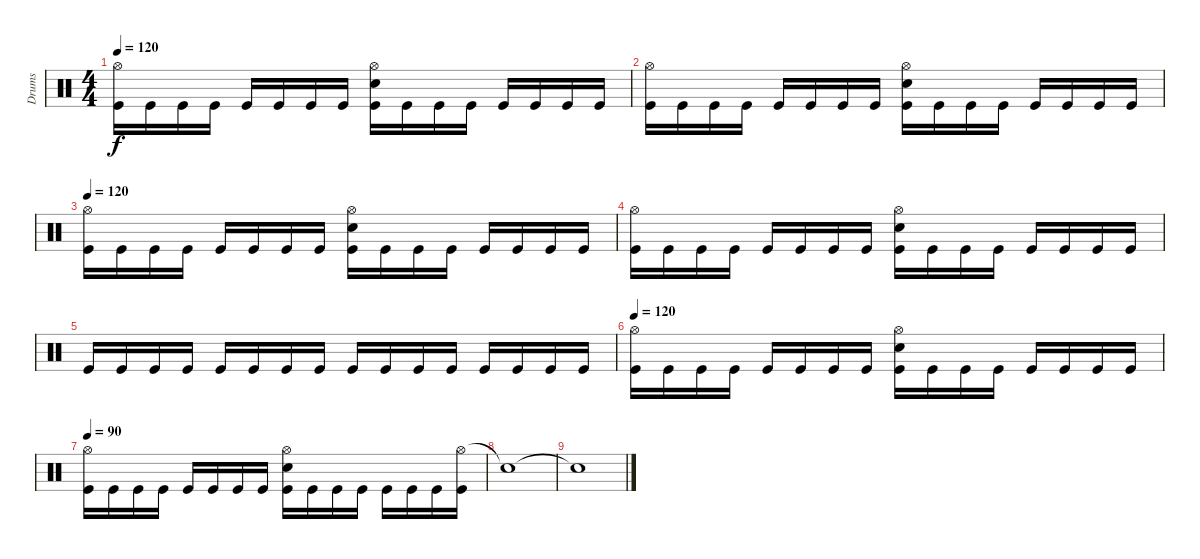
\track ("Drums" "Drums") {instrument percussion}
\staff {score}
\articulation defaults
\ts (4 4)
\tempo 120
\clef neutral
\ks c
("Hi-Hat (open)" "Kick (hit)").16{dy f} "Kick (hit)".16 "Kick (hit)".16 "Kick (hit)".16 "Kick (hit)".16 "Kick (hit)".16 "Kick (hit)".16 "Kick (hit)".16 ("Electric Snare (hit)" "Hi-Hat (open)" "Kick (hit)").16 "Kick (hit)".16 "Kick (hit)".16 "Kick (hit)".16 "Kick (hit)".16 "Kick (hit)".16 "Kick (hit)".16 "Kick (hit)".16 |
("Hi-Hat (open)" "Kick (hit)").16 "Kick (hit)".16 "Kick (hit)".16 "Kick (hit)".16 "Kick (hit)".16 "Kick (hit)".16 "Kick (hit)".16 "Kick (hit)".16 ("Electric Snare (hit)" "Hi-Hat (open)" "Kick (hit)").16 "Kick (hit)".16 "Kick (hit)".16 "Kick (hit)".16 "Kick (hit)".16 "Kick (hit)".16 "Kick (hit)".16 "Kick (hit)".16 |
\tempo 120
("Hi-Hat (open)" "Kick (hit)").16 "Kick (hit)".16 "Kick (hit)".16 "Kick (hit)".16 "Kick (hit)".16 "Kick (hit)".16 "Kick (hit)".16 "Kick (hit)".16 ("Electric Snare (hit)" "Hi-Hat (open)" "Kick (hit)").16 "Kick (hit)".16 "Kick (hit)".16 "Kick (hit)".16 "Kick (hit)".16 "Kick (hit)".16 "Kick (hit)".16 "Kick (hit)".16 |
("Hi-Hat (open)" "Kick (hit)").16 "Kick (hit)".16 "Kick (hit)".16 "Kick (hit)".16 "Kick (hit)".16 "Kick (hit)".16 "Kick (hit)".16 "Kick (hit)".16 ("Electric Snare (hit)" "Hi-Hat (open)" "Kick (hit)").16 "Kick (hit)".16 "Kick (hit)".16 "Kick (hit)".16 "Kick (hit)".16 "Kick (hit)".16 "Kick (hit)".16 "Kick (hit)".16 |
"Kick (hit)".16 "Kick (hit)".16 "Kick (hit)".16 "Kick (hit)".16 "Kick (hit)".16 "Kick (hit)".16 "Kick (hit)".16 "Kick (hit)".16 "Kick (hit)".16 "Kick (hit)".16 "Kick (hit)".16 "Kick (hit)".16 "Kick (hit)".16 "Kick (hit)".16 "Kick (hit)".16 "Kick (hit)".16 |
\tempo 120
("Hi-Hat (open)" "Kick (hit)").16 "Kick (hit)".16 "Kick (hit)".16 "Kick (hit)".16 "Kick (hit)".16 "Kick (hit)".16 "Kick (hit)".16 "Kick (hit)".16 ("Electric Snare (hit)" "Hi-Hat (open)" "Kick (hit)").16 "Kick (hit)".16 "Kick (hit)".16 "Kick (hit)".16 "Kick (hit)".16 "Kick (hit)".16 "Kick (hit)".16 "Kick (hit)".16 |
\tempo 90
("Hi-Hat (open)" "Kick (hit)").16 "Kick (hit)".16 "Kick (hit)".16 "Kick (hit)".16 "Kick (hit)".16 "Kick (hit)".16 "Kick (hit)".16 "Kick (hit)".16 ("Electric Snare (hit)" "Hi-Hat (open)" "Kick (hit)").16 "Kick (hit)".16 "Kick (hit)".16 "Kick (hit)".16 "Kick (hit)".16 "Kick (hit)".16 "Kick (hit)".16 ("Hi-Hat (open)" "Kick (hit)").16 |
"Snare (hit)"{t}.1 |
"Snare (hit)"{t}.1
